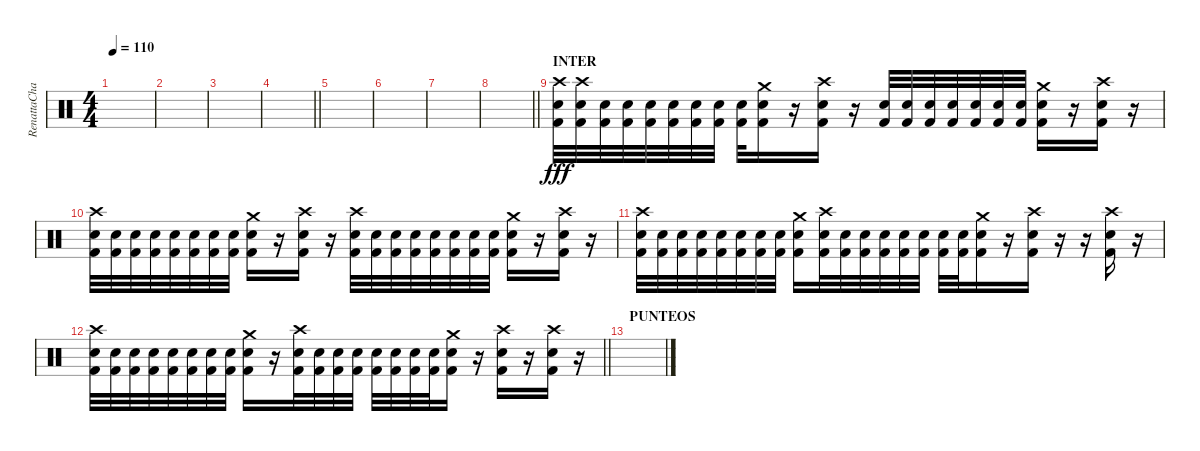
\track ("RenattaCharat" "RenattaCha") {instrument percussion}
\staff {score}
\articulation defaults
\ts (4 4)
\tempo 110
\clef neutral
\ks c
|
|
|
\barLineRight lightlight
|
|
|
|
\barLineRight lightlight
|
\section ("" "INTER")
("Crash high (hit)" "Snare (hit) 2" "Kick (hit) 2").32{dy fff} ("Crash high (hit)" "Snare (hit) 2" "Kick (hit) 2").32 ("Snare (hit) 2" "Kick (hit) 2").32 ("Snare (hit) 2" "Kick (hit) 2").32 ("Snare (hit) 2" "Kick (hit) 2").32 ("Snare (hit) 2" "Kick (hit) 2").32 ("Snare (hit) 2" "Kick (hit) 2").32 ("Snare (hit) 2" "Kick (hit) 2").32 ("Snare (hit) 2" "Kick (hit) 2").32 ("Crash medium (hit)" "Snare (hit) 2" "Kick (hit) 2").16 r.16 ("Crash high (hit)" "Snare (hit) 2" "Kick (hit) 2").16 r.16 ("Snare (hit) 2" "Kick (hit) 2").32 ("Snare (hit) 2" "Kick (hit) 2").32 ("Snare (hit) 2" "Kick (hit) 2").32 ("Snare (hit) 2" "Kick (hit) 2").32 ("Snare (hit) 2" "Kick (hit) 2").32 ("Snare (hit) 2" "Kick (hit) 2").32 ("Snare (hit) 2" "Kick (hit) 2").32 ("Crash medium (hit)" "Snare (hit) 2" "Kick (hit) 2").16 r.16 ("Crash high (hit)" "Snare (hit) 2" "Kick (hit) 2").16 r.16 |
("Crash high (hit)" "Snare (hit) 2" "Kick (hit) 2").32 ("Snare (hit) 2" "Kick (hit) 2").32 ("Snare (hit) 2" "Kick (hit) 2").32 ("Snare (hit) 2" "Kick (hit) 2").32 ("Snare (hit) 2" "Kick (hit) 2").32 ("Snare (hit) 2" "Kick (hit) 2").32 ("Snare (hit) 2" "Kick (hit) 2").32 ("Snare (hit) 2" "Kick (hit) 2").32 ("Crash medium (hit)" "Snare (hit) 2" "Kick (hit) 2").16 r.16 ("Crash high (hit)" "Snare (hit) 2" "Kick (hit) 2").16 r.16 ("Crash high (hit)" "Snare (hit) 2" "Kick (hit) 2").32 ("Snare (hit) 2" "Kick (hit) 2").32 ("Snare (hit) 2" "Kick (hit) 2").32 ("Snare (hit) 2" "Kick (hit) 2").32 ("Snare (hit) 2" "Kick (hit) 2").32 ("Snare (hit) 2" "Kick (hit) 2").32 ("Snare (hit) 2" "Kick (hit) 2").32 ("Snare (hit) 2" "Kick (hit) 2").32 ("Crash medium (hit)" "Snare (hit) 2" "Kick (hit) 2").16 r.16 ("Crash high (hit)" "Snare (hit) 2" "Kick (hit) 2").16 r.16 |
("Crash high (hit)" "Snare (hit) 2" "Kick (hit) 2").32 ("Snare (hit) 2" "Kick (hit) 2").32 ("Snare (hit) 2" "Kick (hit) 2").32 ("Snare (hit) 2" "Kick (hit) 2").32 ("Snare (hit) 2" "Kick (hit) 2").32 ("Snare (hit) 2" "Kick (hit) 2").32 ("Snare (hit) 2" "Kick (hit) 2").32 ("Snare (hit) 2" "Kick (hit) 2").32 ("Crash medium (hit)" "Snare (hit) 2" "Kick (hit) 2").16 ("Crash high (hit)" "Snare (hit) 2" "Kick (hit) 2").32 ("Snare (hit) 2" "Kick (hit) 2").32 ("Snare (hit) 2" "Kick (hit) 2").32 ("Snare (hit) 2" "Kick (hit) 2").32 ("Snare (hit) 2" "Kick (hit) 2").32 ("Snare (hit) 2" "Kick (hit) 2").32 ("Snare (hit) 2" "Kick (hit) 2").32 ("Snare (hit) 2" "Kick (hit) 2").32 ("Crash medium (hit)" "Snare (hit) 2" "Kick (hit) 2").16 r.16 ("Crash high (hit)" "Snare (hit) 2" "Kick (hit) 2").16 r.16 r.16 ("Crash high (hit)" "Snare (hit) 2" "Kick (hit) 2").16 r.16 |
\barLineRight lightlight
("Crash high (hit)" "Snare (hit) 2" "Kick (hit) 2").32 ("Snare (hit) 2" "Kick (hit) 2").32 ("Snare (hit) 2" "Kick (hit) 2").32 ("Snare (hit) 2" "Kick (hit) 2").32 ("Snare (hit) 2" "Kick (hit) 2").32 ("Snare (hit) 2" "Kick (hit) 2").32 ("Snare (hit) 2" "Kick (hit) 2").32 ("Snare (hit) 2" "Kick (hit) 2").32 ("Crash medium (hit)" "Snare (hit) 2" "Kick (hit) 2").16 r.16 ("Crash high (hit)" "Snare (hit) 2" "Kick (hit) 2").32 ("Snare (hit) 2" "Kick (hit) 2").32 ("Snare (hit) 2" "Kick (hit) 2").32 ("Snare (hit) 2" "Kick (hit) 2").32 ("Snare (hit) 2" "Kick (hit) 2").32 ("Snare (hit) 2" "Kick (hit) 2").32 ("Snare (hit) 2" "Kick (hit) 2").32 ("Snare (hit) 2" "Kick (hit) 2").32 ("Crash medium (hit)" "Snare (hit) 2" "Kick (hit) 2").16 r.16 ("Crash high (hit)" "Snare (hit) 2" "Kick (hit) 2").16 r.16 ("Crash high (hit)" "Snare (hit) 2" "Kick (hit) 2").16 r.16 |
\section ("" "PUNTEOS")
